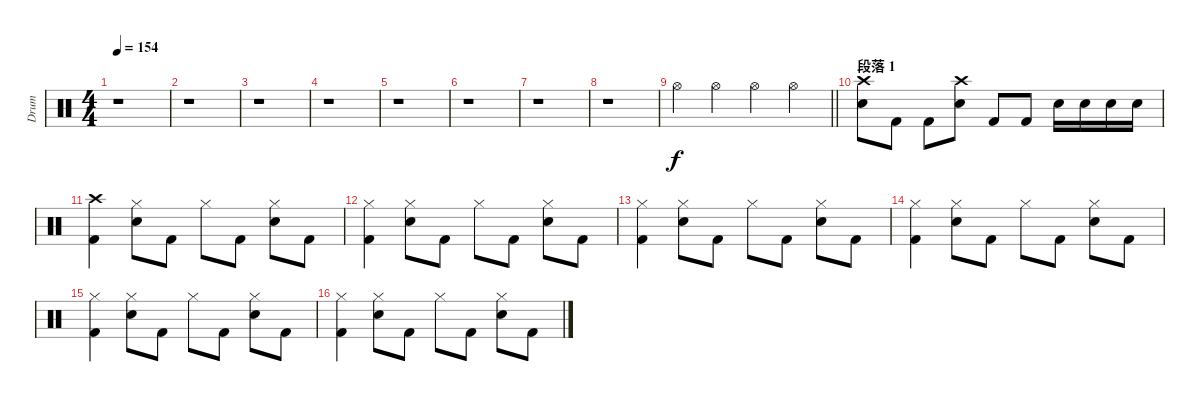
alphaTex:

\track ("Drum" "Drum") {instrument percussion}
\staff {score}
\articulation defaults
\ts (4 4)
\tempo 154
\clef neutral
\ks c
r.1{dy f} |
r.1 |
r.1 |
r.1 |
r.1 |
r.1 |
r.1 |
r.1 |
\barLineRight lightlight "Hi-Hat (open)".4 "Hi-Hat (open)".4 "Hi-Hat (open)".4 "Hi-Hat (open)".4
|
\section ("" "段落 1")
("Crash high (hit)" "Electric Snare (hit)").8 "Kick (hit) 2".8 "Kick (hit) 2".8 ("Crash high (hit)" "Electric Snare (hit)").8 "Kick (hit) 2".8 "Kick (hit) 2".8 "Electric Snare (hit)".16 "Electric Snare (hit)".16 "Electric Snare (hit)".16 "Electric Snare (hit)".16 |
("Crash high (hit)" "Kick (hit) 2").4 ("Hi-Hat (closed)" "Electric Snare (hit)").8 "Kick (hit) 2".8 "Hi-Hat (closed)".8 "Kick (hit) 2".8 ("Hi-Hat (closed)" "Electric Snare (hit)").8 "Kick (hit) 2".8 |
("Hi-Hat (closed)" "Kick (hit) 2").4 ("Hi-Hat (closed)" "Electric Snare (hit)").8 "Kick (hit) 2".8 "Hi-Hat (closed)".8 "Kick (hit) 2".8 ("Hi-Hat (closed)" "Electric Snare (hit)").8 "Kick (hit) 2".8 |
("Hi-Hat (closed)" "Kick (hit) 2").4 ("Hi-Hat (closed)" "Electric Snare (hit)").8 "Kick (hit) 2".8 "Hi-Hat (closed)".8 "Kick (hit) 2".8 ("Hi-Hat (closed)" "Electric Snare (hit)").8 "Kick (hit) 2".8 |
("Hi-Hat (closed)" "Kick (hit) 2").4 ("Hi-Hat (closed)" "Electric Snare (hit)").8 "Kick (hit) 2".8 "Hi-Hat (closed)".8 "Kick (hit) 2".8 ("Hi-Hat (closed)" "Electric Snare (hit)").8 "Kick (hit) 2".8 |
("Hi-Hat (closed)" "Kick (hit) 2").4 ("Hi-Hat (closed)" "Electric Snare (hit)").8 "Kick (hit) 2".8 "Hi-Hat (closed)".8 "Kick (hit) 2".8 ("Hi-Hat (closed)" "Electric Snare (hit)").8 "Kick (hit) 2".8 |
("Hi-Hat (closed)" "Kick (hit) 2").4 ("Hi-Hat (closed)" "Electric Snare (hit)").8 "Kick (hit) 2".8 "Hi-Hat (closed)".8 "Kick (hit) 2".8 ("Hi-Hat (closed)" "Electric Snare (hit)").8 "Kick (hit) 2".8
